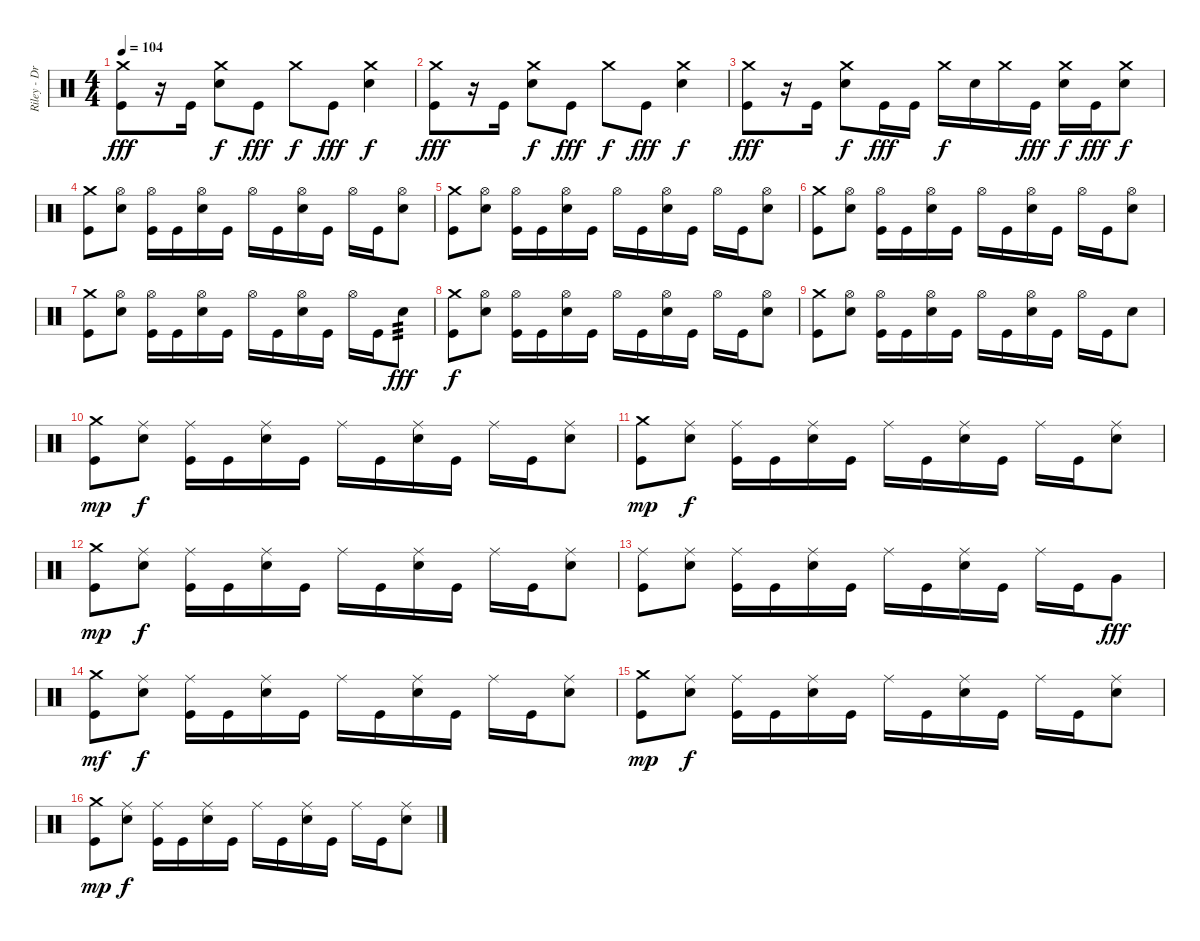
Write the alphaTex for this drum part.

\track ("Riley - Drums" "Riley - Dr") {instrument percussion}
\staff {score}
\articulation defaults
\ts (4 4)
\tempo 104
\clef neutral
\ks c
("Crash medium (hit)" "Kick (hit)").8{dy fff} r.16 "Kick (hit)".16 ("Crash medium (hit)" "Snare (hit) 2").8{dy f} "Kick (hit)".8{dy fff} "Crash medium (hit)".8{dy f} "Kick (hit)".8{dy fff} ("Crash medium (hit)" "Snare (hit) 2").4{dy f} |
("Crash medium (hit)" "Kick (hit)").8{dy fff} r.16 "Kick (hit)".16 ("Crash medium (hit)" "Snare (hit) 2").8{dy f} "Kick (hit)".8{dy fff} "Crash medium (hit)".8{dy f} "Kick (hit)".8{dy fff} ("Crash medium (hit)" "Snare (hit) 2").4{dy f} |
("Crash medium (hit)" "Kick (hit)").8{dy fff} r.16 "Kick (hit)".16 ("Crash medium (hit)" "Snare (hit) 2").8{dy f} "Kick (hit)".16{dy fff} "Kick (hit)".16 "Crash medium (hit)".16{dy f} "Snare (hit) 2".16 "Crash medium (hit)".16 "Kick (hit)".16{dy fff} ("Crash medium (hit)" "Snare (hit) 2").16{dy f} "Kick (hit)".16{dy fff} ("Crash medium (hit)" "Snare (hit) 2").8{dy f} |
("Crash medium (hit)" "Kick (hit)").8 ("Hi-Hat (open)" "Snare (hit) 2").8 ("Hi-Hat (open)" "Kick (hit)").16 "Kick (hit)".16 ("Hi-Hat (open)" "Snare (hit) 2").16 "Kick (hit)".16 "Hi-Hat (open)".16 "Kick (hit)".16 ("Hi-Hat (open)" "Snare (hit) 2").16 "Kick (hit)".16 "Hi-Hat (open)".16 "Kick (hit)".16 ("Hi-Hat (open)" "Snare (hit) 2").8 |
("Crash medium (hit)" "Kick (hit)").8 ("Hi-Hat (open)" "Snare (hit) 2").8 ("Hi-Hat (open)" "Kick (hit)").16 "Kick (hit)".16 ("Hi-Hat (open)" "Snare (hit) 2").16 "Kick (hit)".16 "Hi-Hat (open)".16 "Kick (hit)".16 ("Hi-Hat (open)" "Snare (hit) 2").16 "Kick (hit)".16 "Hi-Hat (open)".16 "Kick (hit)".16 ("Hi-Hat (open)" "Snare (hit) 2").8 |
("Crash medium (hit)" "Kick (hit)").8 ("Hi-Hat (open)" "Snare (hit) 2").8 ("Hi-Hat (open)" "Kick (hit)").16 "Kick (hit)".16 ("Hi-Hat (open)" "Snare (hit) 2").16 "Kick (hit)".16 "Hi-Hat (open)".16 "Kick (hit)".16 ("Hi-Hat (open)" "Snare (hit) 2").16 "Kick (hit)".16 "Hi-Hat (open)".16 "Kick (hit)".16 ("Hi-Hat (open)" "Snare (hit) 2").8 |
("Crash medium (hit)" "Kick (hit)").8 ("Hi-Hat (open)" "Snare (hit) 2").8 ("Hi-Hat (open)" "Kick (hit)").16 "Kick (hit)".16 ("Hi-Hat (open)" "Snare (hit) 2").16 "Kick (hit)".16 "Hi-Hat (open)".16 "Kick (hit)".16 ("Hi-Hat (open)" "Snare (hit) 2").16 "Kick (hit)".16 "Hi-Hat (open)".16 "Kick (hit)".16 "Snare (hit) 2".8{tp 3 dy fff} |
("Crash medium (hit)" "Kick (hit)").8{dy f} ("Hi-Hat (open)" "Snare (hit) 2").8 ("Hi-Hat (open)" "Kick (hit)").16 "Kick (hit)".16 ("Hi-Hat (open)" "Snare (hit) 2").16 "Kick (hit)".16 "Hi-Hat (open)".16 "Kick (hit)".16 ("Hi-Hat (open)" "Snare (hit) 2").16 "Kick (hit)".16 "Hi-Hat (open)".16 "Kick (hit)".16 ("Hi-Hat (open)" "Snare (hit) 2").8 |
("Crash medium (hit)" "Kick (hit)").8 ("Hi-Hat (open)" "Snare (hit) 2").8 ("Hi-Hat (open)" "Kick (hit)").16 "Kick (hit)".16 ("Hi-Hat (open)" "Snare (hit) 2").16 "Kick (hit)".16 "Hi-Hat (open)".16 "Kick (hit)".16 ("Hi-Hat (open)" "Snare (hit) 2").16 "Kick (hit)".16 "Hi-Hat (open)".16 "Kick (hit)".16 "Snare (hit) 2".8 |
("Crash medium (hit)" "Kick (hit)").8{dy mp} ("Ride (middle)" "Snare (hit) 2").8{dy f} ("Ride (middle)" "Kick (hit)").16 "Kick (hit)".16 ("Ride (middle)" "Snare (hit) 2").16 "Kick (hit)".16 "Ride (middle)".16 "Kick (hit)".16 ("Ride (middle)" "Snare (hit) 2").16 "Kick (hit)".16 "Ride (middle)".16 "Kick (hit)".16 ("Ride (middle)" "Snare (hit) 2").8 |
("Crash medium (hit)" "Kick (hit)").8{dy mp} ("Ride (middle)" "Snare (hit) 2").8{dy f} ("Ride (middle)" "Kick (hit)").16 "Kick (hit)".16 ("Ride (middle)" "Snare (hit) 2").16 "Kick (hit)".16 "Ride (middle)".16 "Kick (hit)".16 ("Ride (middle)" "Snare (hit) 2").16 "Kick (hit)".16 "Ride (middle)".16 "Kick (hit)".16 ("Ride (middle)" "Snare (hit) 2").8 |
("Crash medium (hit)" "Kick (hit)").8{dy mp} ("Ride (middle)" "Snare (hit) 2").8{dy f} ("Ride (middle)" "Kick (hit)").16 "Kick (hit)".16 ("Ride (middle)" "Snare (hit) 2").16 "Kick (hit)".16 "Ride (middle)".16 "Kick (hit)".16 ("Ride (middle)" "Snare (hit) 2").16 "Kick (hit)".16 "Ride (middle)".16 "Kick (hit)".16 ("Ride (middle)" "Snare (hit) 2").8 |
("Ride (middle)" "Kick (hit)").8 ("Ride (middle)" "Snare (hit) 2").8 ("Ride (middle)" "Kick (hit)").16 "Kick (hit)".16 ("Ride (middle)" "Snare (hit) 2").16 "Kick (hit)".16 "Ride (middle)".16 "Kick (hit)".16 ("Ride (middle)" "Snare (hit) 2").16 "Kick (hit)".16 "Ride (middle)".16 "Kick (hit)".16 "Very Low Tom (hit)".8{dy fff} |
("Crash medium (hit)" "Kick (hit)").8{dy mf} ("Ride (middle)" "Snare (hit) 2").8{dy f} ("Ride (middle)" "Kick (hit)").16 "Kick (hit)".16 ("Ride (middle)" "Snare (hit) 2").16 "Kick (hit)".16 "Ride (middle)".16 "Kick (hit)".16 ("Ride (middle)" "Snare (hit) 2").16 "Kick (hit)".16 "Ride (middle)".16 "Kick (hit)".16 ("Ride (middle)" "Snare (hit) 2").8 |
("Crash medium (hit)" "Kick (hit)").8{dy mp} ("Ride (middle)" "Snare (hit) 2").8{dy f} ("Ride (middle)" "Kick (hit)").16 "Kick (hit)".16 ("Ride (middle)" "Snare (hit) 2").16 "Kick (hit)".16 "Ride (middle)".16 "Kick (hit)".16 ("Ride (middle)" "Snare (hit) 2").16 "Kick (hit)".16 "Ride (middle)".16 "Kick (hit)".16 ("Ride (middle)" "Snare (hit) 2").8 |
("Crash medium (hit)" "Kick (hit)").8{dy mp} ("Ride (middle)" "Snare (hit) 2").8{dy f} ("Ride (middle)" "Kick (hit)").16 "Kick (hit)".16 ("Ride (middle)" "Snare (hit) 2").16 "Kick (hit)".16 "Ride (middle)".16 "Kick (hit)".16 ("Ride (middle)" "Snare (hit) 2").16 "Kick (hit)".16 "Ride (middle)".16 "Kick (hit)".16 ("Ride (middle)" "Snare (hit) 2").8
